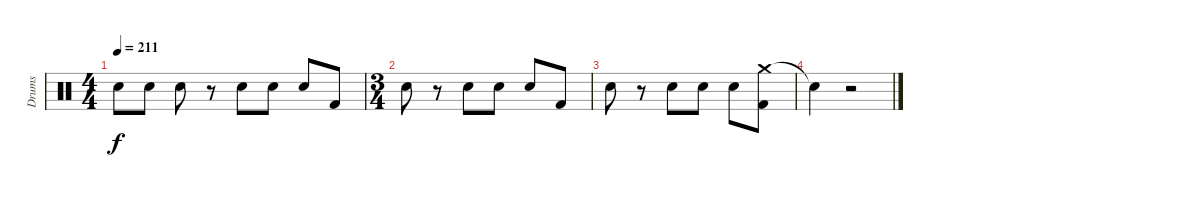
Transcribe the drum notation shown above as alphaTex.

\track ("Drums" "Drums") {instrument percussion}
\staff {score}
\articulation defaults
\ts (4 4)
\tempo 211
\clef neutral
\ks c "Snare (hit)"{t}.8{dy f} "Snare (hit) 2".8 "Snare (hit) 2".8
r.8 "Snare (hit) 2".8 "Snare (hit) 2".8 "Snare (hit) 2".8 "Kick (hit) 2".8 |
\ts (3 4)
"Snare (hit) 2".8 r.8 "Snare (hit) 2".8 "Snare (hit) 2".8 "Snare (hit) 2".8 "Kick (hit) 2".8 |
"Snare (hit) 2".8 r.8 "Snare (hit) 2".8 "Snare (hit) 2".8 "Snare (hit) 2".8 ("Crash medium (hit)" "Kick (hit) 2").8 |
"Snare (hit)"{t}.4 r.2
